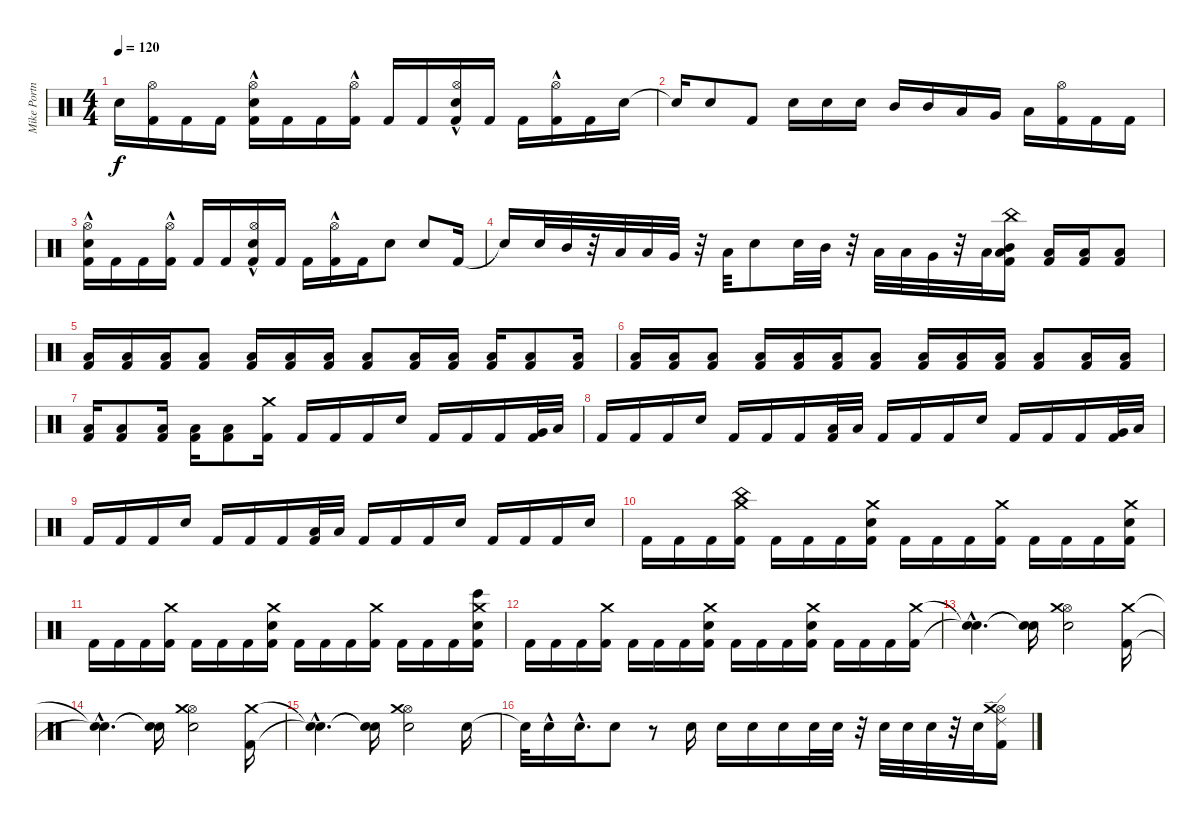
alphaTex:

\track ("Mike Portnoy - Batterie" "Mike Portn") {instrument percussion}
\staff {score}
\articulation defaults
\ts (4 4)
\tempo 120
\clef neutral
\ks c "Electric Snare (hit)".16{dy f}
("Hi-Hat (open)" "Kick (hit) 2").16 "Kick (hit) 2".16 "Kick (hit) 2".16 ("Hi-Hat (open)"{hac} "Electric Snare (hit)"{hac} "Kick (hit) 2").16 "Kick (hit) 2".16 "Kick (hit) 2".16 ("Hi-Hat (open)"{hac} "Kick (hit) 2").16 "Kick (hit) 2".16 "Kick (hit) 2".16 ("Hi-Hat (open)"{hac} "Electric Snare (hit)"{hac} "Kick (hit) 2").16 "Kick (hit) 2".16 "Kick (hit) 2".16 ("Hi-Hat (open)"{hac} "Kick (hit) 2").16 "Kick (hit) 2".16 "Electric Snare (hit)".16 |
"Snare (hit)"{t}.16 "Electric Snare (hit)".8 "Kick (hit) 2".8 "Electric Snare (hit)".16 "Electric Snare (hit)".16 "Electric Snare (hit)".16 "Mid Tom (hit)".16 "Mid Tom (hit)".16 "Low Tom (hit)".16 "Very Low Tom (hit)".16 "Low Floor Tom (hit)".16 ("Hi-Hat (open)" "Kick (hit) 2").16 "Kick (hit) 2".16 "Kick (hit) 2".16 |
("Hi-Hat (open)"{hac} "Electric Snare (hit)"{hac} "Kick (hit) 2").16 "Kick (hit) 2".16 "Kick (hit) 2".16 ("Hi-Hat (open)"{hac} "Kick (hit) 2").16 "Kick (hit) 2".16 "Kick (hit) 2".16 ("Hi-Hat (open)"{hac} "Electric Snare (hit)"{hac} "Kick (hit) 2").16 "Kick (hit) 2".16 "Kick (hit) 2".16 ("Hi-Hat (open)"{hac} "Kick (hit) 2").16 "Kick (hit) 2".16 "Electric Snare (hit)".8 "Electric Snare (hit)".8 "Kick (hit) 2".16 |
"Snare (hit)"{t}.16 "Electric Snare (hit)".32 "Mid Tom (hit)".32 r.32 "Low Tom (hit)".32 "Low Tom (hit)".32 "Very Low Tom (hit)".32 r.32 "Low Floor Tom (hit)".32 "Electric Snare (hit)".8 "Electric Snare (hit)".32 "Mid Tom (hit)".32 r.32 "Low Tom (hit)".32 "Low Tom (hit)".32 "Very Low Tom (hit)".32 r.32 "Low Floor Tom (hit)".32 ("China (hit)" "Low Floor Tom (hit)" "Mid Tom (hit)" "Kick (hit) 2").16 ("Low Floor Tom (hit)" "Kick (hit) 2").16 ("Low Floor Tom (hit)" "Kick (hit) 2").16 ("Low Floor Tom (hit)" "Kick (hit) 2").8 |
("Low Floor Tom (hit)" "Kick (hit) 2").16 ("Low Floor Tom (hit)" "Kick (hit) 2").16 ("Low Floor Tom (hit)" "Kick (hit) 2").16 ("Low Floor Tom (hit)" "Kick (hit) 2").8 ("Low Floor Tom (hit)" "Kick (hit) 2").16 ("Low Floor Tom (hit)" "Kick (hit) 2").16 ("Low Floor Tom (hit)" "Kick (hit) 2").16 ("Low Floor Tom (hit)" "Kick (hit) 2").8 ("Low Floor Tom (hit)" "Kick (hit) 2").16 ("Low Floor Tom (hit)" "Kick (hit) 2").16 ("Low Floor Tom (hit)" "Kick (hit) 2").16 ("Low Floor Tom (hit)" "Kick (hit) 2").8 ("Low Floor Tom (hit)" "Kick (hit) 2").16 |
("Low Floor Tom (hit)" "Kick (hit) 2").16 ("Low Floor Tom (hit)" "Kick (hit) 2").16 ("Low Floor Tom (hit)" "Kick (hit) 2").8 ("Low Floor Tom (hit)" "Kick (hit) 2").16 ("Low Floor Tom (hit)" "Kick (hit) 2").16 ("Low Floor Tom (hit)" "Kick (hit) 2").16 ("Low Floor Tom (hit)" "Kick (hit) 2").8 ("Low Floor Tom (hit)" "Kick (hit) 2").16 ("Low Floor Tom (hit)" "Kick (hit) 2").16 ("Low Floor Tom (hit)" "Kick (hit) 2").16 ("Low Floor Tom (hit)" "Kick (hit) 2").8 ("Low Floor Tom (hit)" "Kick (hit) 2").16 ("Low Floor Tom (hit)" "Kick (hit) 2").16 |
("Low Floor Tom (hit)" "Kick (hit) 2").16 ("Low Floor Tom (hit)" "Kick (hit) 2").8 ("Low Floor Tom (hit)" "Kick (hit) 2").16 ("Low Floor Tom (hit)" "Kick (hit) 2").16 ("Low Floor Tom (hit)" "Kick (hit) 2").8 ("Crash medium (hit)" "Kick (hit) 2").16 "Kick (hit) 2".16 "Kick (hit) 2".16 "Kick (hit) 2".16 "Electric Snare (hit)".16 "Kick (hit) 2".16 "Kick (hit) 2".16 "Kick (hit) 2".16 ("Very Low Tom (hit)" "Kick (hit) 2").32 "Low Floor Tom (hit)".32 |
"Kick (hit) 2".16 "Kick (hit) 2".16 "Kick (hit) 2".16 "Electric Snare (hit)".16 "Kick (hit) 2".16 "Kick (hit) 2".16 "Kick (hit) 2".16 ("Low Floor Tom (hit)" "Kick (hit) 2").32 "Low Floor Tom (hit)".32 "Kick (hit) 2".16 "Kick (hit) 2".16 "Kick (hit) 2".16 "Electric Snare (hit)".16 "Kick (hit) 2".16 "Kick (hit) 2".16 "Kick (hit) 2".16 ("Very Low Tom (hit)" "Kick (hit) 2").32 "Low Floor Tom (hit)".32 |
"Kick (hit) 2".16 "Kick (hit) 2".16 "Kick (hit) 2".16 "Electric Snare (hit)".16 "Kick (hit) 2".16 "Kick (hit) 2".16 "Kick (hit) 2".16 ("Low Floor Tom (hit)" "Kick (hit) 2").32 "Low Floor Tom (hit)".32 "Kick (hit) 2".16 "Kick (hit) 2".16 "Kick (hit) 2".16 "Electric Snare (hit)".16 "Kick (hit) 2".16 "Kick (hit) 2".16 "Kick (hit) 2".16 "Electric Snare (hit)".16 |
"Kick (hit) 2".16 "Kick (hit) 2".16 "Kick (hit) 2".16 ("Crash medium (hit)" "China (hit)" "Kick (hit) 2").16 "Kick (hit) 2".16 "Kick (hit) 2".16 "Kick (hit) 2".16 ("Electric Snare (hit)" "Crash medium (hit)" "Kick (hit) 2").16 "Kick (hit) 2".16 "Kick (hit) 2".16 "Kick (hit) 2".16 ("Crash medium (hit)" "Kick (hit) 2").16 "Kick (hit) 2".16 "Kick (hit) 2".16 "Kick (hit) 2".16 ("Electric Snare (hit)" "Crash medium (hit)" "Kick (hit) 2").16 |
"Kick (hit) 2".16 "Kick (hit) 2".16 "Kick (hit) 2".16 ("Crash medium (hit)" "Kick (hit) 2").16 "Kick (hit) 2".16 "Kick (hit) 2".16 "Kick (hit) 2".16 ("Electric Snare (hit)" "Crash medium (hit)" "Kick (hit) 2").16 "Kick (hit) 2".16 "Kick (hit) 2".16 "Kick (hit) 2".16 ("Crash medium (hit)" "Kick (hit) 2").16 "Kick (hit) 2".16 "Kick (hit) 2".16 "Kick (hit) 2".16 ("Bongo High (hit)" "Electric Snare (hit)" "Crash medium (hit)" "Kick (hit) 2").16 |
"Kick (hit) 2".16 "Kick (hit) 2".16 "Kick (hit) 2".16 ("Crash medium (hit)" "Kick (hit) 2").16 "Kick (hit) 2".16 "Kick (hit) 2".16 "Kick (hit) 2".16 ("Electric Snare (hit)" "Crash medium (hit)" "Kick (hit) 2").16 "Kick (hit) 2".16 "Kick (hit) 2".16 "Kick (hit) 2".16 ("Electric Snare (hit)" "Crash medium (hit)" "Kick (hit) 2").16 "Kick (hit) 2".16 "Kick (hit) 2".16 "Kick (hit) 2".16 ("Kick (hit) 2" "Crash medium (hit)").16 |
("Snare (hit)"{hac t} "Snare (hit)"{hac t}).4{d} ("Snare (hit)"{t} "Snare (hit)"{t}).16 ("Electric Snare (hit)" "Hi-Hat (open)" "Crash medium (hit)").2 ("Kick (hit) 2" "Crash medium (hit)").16 |
("Snare (hit)"{hac t} "Snare (hit)"{hac t}).4{d} ("Snare (hit)"{t} "Snare (hit)"{t}).16 ("Electric Snare (hit)" "Hi-Hat (open)" "Crash medium (hit)").2 ("Crash medium (hit)" "Kick (hit) 2").16 |
("Snare (hit)"{hac t} "Snare (hit)"{hac t}).4{d} ("Snare (hit)"{t} "Snare (hit)"{t}).16 ("Hi-Hat (open)" "Crash medium (hit)" "Electric Snare (hit)").2 "Electric Snare (hit)".16 |
"Snare (hit)"{t}.32 "Electric Snare (hit)"{hac}.16 "Electric Snare (hit)"{hac}.16{d} "Electric Snare (hit)".8 r.8 "Electric Snare (hit)".16 "Electric Snare (hit)".16 "Electric Snare (hit)".16 "Electric Snare (hit)".16 "Electric Snare (hit)".32 "Electric Snare (hit)".32 r.32 "Electric Snare (hit)".32 "Electric Snare (hit)".32 "Electric Snare (hit)".32 r.32 "Electric Snare (hit)".32 ("Hi-Hat (open)" "Crash medium (hit)" "Ride (edge) 2" "Kick (hit) 2").16
